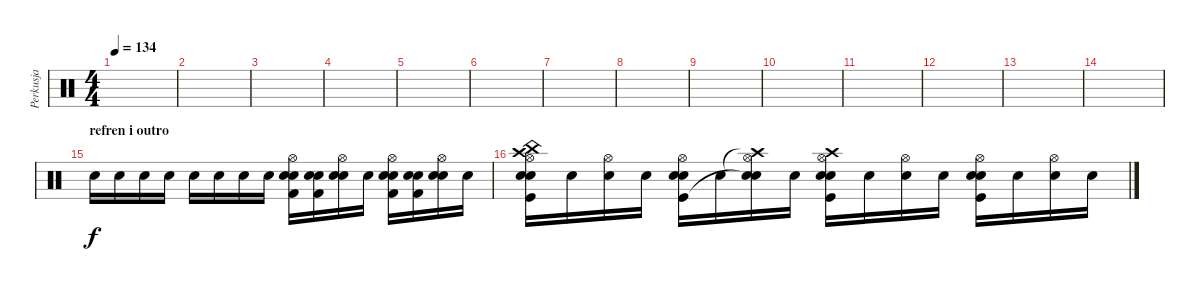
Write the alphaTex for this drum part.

\track ("Perkusja" "Perkusja") {instrument percussion}
\staff {score}
\articulation defaults
\ts (4 4)
\tempo 134
\clef neutral
\ks c
|
|
|
|
|
|
|
|
|
|
|
|
|
|
\section ("" "refren i outro")
"Snare (hit)".16 "Snare (hit)".16 "Snare (hit)".16 "Snare (hit)".16 "Snare (hit)".16 "Snare (hit)".16 "Snare (hit)".16 "Snare (hit)".16 ("Electric Snare (hit)" "Kick (hit) 2" "Hi-Hat (open)" "Snare (hit)").16 ("Electric Snare (hit)" "Kick (hit) 2" "Snare (hit)").16 ("Electric Snare (hit)" "Hi-Hat (open)" "Snare (hit)").16 "Snare (hit)".16 ("Electric Snare (hit)" "Kick (hit) 2" "Hi-Hat (open)" "Snare (hit)").16 ("Electric Snare (hit)" "Kick (hit) 2" "Snare (hit)").16 ("Electric Snare (hit)" "Hi-Hat (open)" "Snare (hit)").16 "Snare (hit)".16 |
("Crash high (hit)" "China (hit)" "Electric Snare (hit)" "Kick (hit)" "Hi-Hat (open)" "Snare (hit)").16 "Snare (hit)".16 ("Hi-Hat (open)" "Snare (hit)").16 "Snare (hit)".16 ("Electric Snare (hit)" "Kick (hit)" "Hi-Hat (open)" "Snare (hit)").16 "Snare (hit)".16 ("Crash high (hit)"{t} "Snare (hit)"{t} "Hi-Hat (open)" "Snare (hit)").16 "Snare (hit)".16 ("Crash high (hit)" "Electric Snare (hit)" "Kick (hit)" "Hi-Hat (open)" "Snare (hit)").16 "Snare (hit)".16 ("Hi-Hat (open)" "Snare (hit)").16 "Snare (hit)".16 ("Electric Snare (hit)" "Kick (hit)" "Hi-Hat (open)" "Snare (hit)").16 "Snare (hit)".16 ("Hi-Hat (open)" "Snare (hit)").16 "Snare (hit)".16
